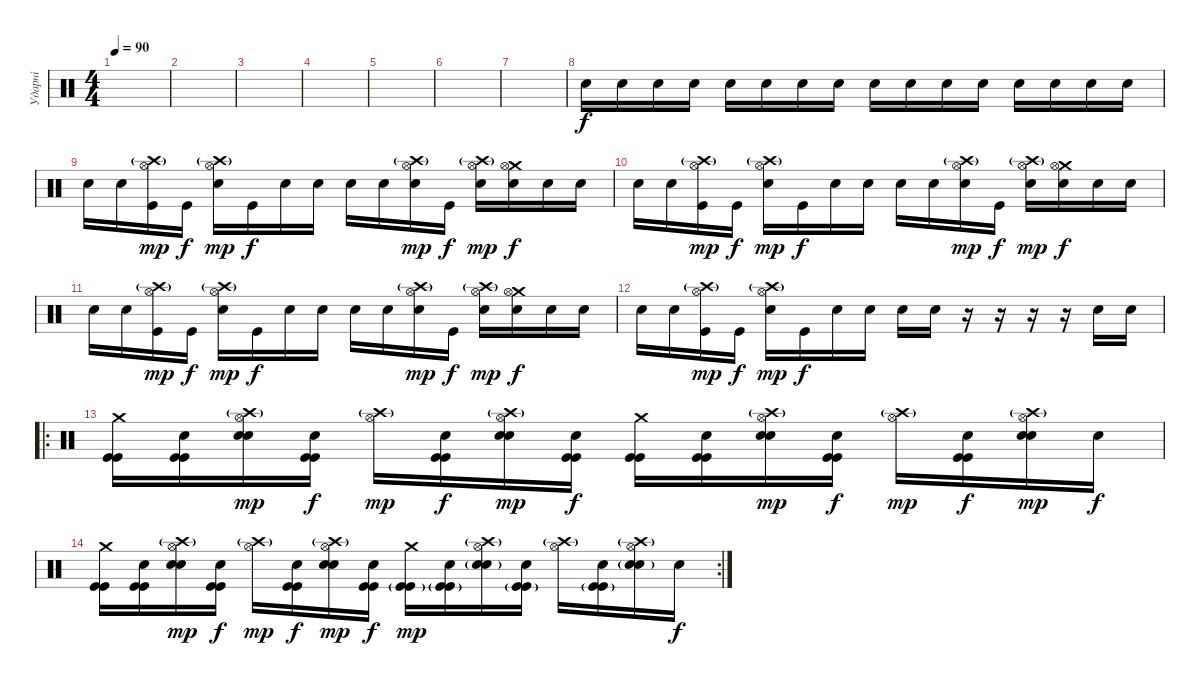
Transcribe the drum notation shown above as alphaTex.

\track ("Ударні" "Ударні") {instrument percussion}
\staff {score}
\articulation defaults
\ts (4 4)
\tempo 90
\clef neutral
\ks c
|
|
|
|
|
|
|
"Snare (hit)".16 "Snare (hit)".16 "Snare (hit)".16 "Snare (hit)".16 "Snare (hit)".16 "Snare (hit)".16 "Snare (hit)".16 "Snare (hit)".16 "Snare (hit)".16 "Snare (hit)".16 "Snare (hit)".16 "Snare (hit)".16 "Snare (hit)".16 "Snare (hit)".16 "Snare (hit)".16 "Snare (hit)".16 |
"Snare (hit)".16 "Snare (hit)".16 ("Crash high (hit)"{g} "Hi-Hat (open)" "Kick (hit)").16{dy mp} "Kick (hit)".16{dy f} ("Crash high (hit)"{g} "Hi-Hat (open)" "Electric Snare (hit)").16{dy mp} "Kick (hit)".16{dy f} "Snare (hit)".16 "Snare (hit)".16 "Snare (hit)".16 "Snare (hit)".16 ("Crash high (hit)"{g} "Hi-Hat (open)" "Electric Snare (hit)").16{dy mp} "Kick (hit)".16{dy f} ("Crash high (hit)"{g} "Hi-Hat (open)" "Electric Snare (hit)").16{dy mp} ("Crash medium (hit)" "Hi-Hat (open)" "Electric Snare (hit)").16{dy f} "Snare (hit)".16 "Snare (hit)".16 |
"Snare (hit)".16 "Snare (hit)".16 ("Crash high (hit)"{g} "Hi-Hat (open)" "Kick (hit)").16{dy mp} "Kick (hit)".16{dy f} ("Crash high (hit)"{g} "Hi-Hat (open)" "Electric Snare (hit)").16{dy mp} "Kick (hit)".16{dy f} "Snare (hit)".16 "Snare (hit)".16 "Snare (hit)".16 "Snare (hit)".16 ("Crash high (hit)"{g} "Hi-Hat (open)" "Electric Snare (hit)").16{dy mp} "Kick (hit)".16{dy f} ("Crash high (hit)"{g} "Hi-Hat (open)" "Electric Snare (hit)").16{dy mp} ("Crash medium (hit)" "Hi-Hat (open)" "Electric Snare (hit)").16{dy f} "Snare (hit)".16 "Snare (hit)".16 |
"Snare (hit)".16 "Snare (hit)".16 ("Crash high (hit)"{g} "Hi-Hat (open)" "Kick (hit)").16{dy mp} "Kick (hit)".16{dy f} ("Crash high (hit)"{g} "Hi-Hat (open)" "Electric Snare (hit)").16{dy mp} "Kick (hit)".16{dy f} "Snare (hit)".16 "Snare (hit)".16 "Snare (hit)".16 "Snare (hit)".16 ("Crash high (hit)"{g} "Hi-Hat (open)" "Electric Snare (hit)").16{dy mp} "Kick (hit)".16{dy f} ("Crash high (hit)"{g} "Hi-Hat (open)" "Electric Snare (hit)").16{dy mp} ("Crash medium (hit)" "Hi-Hat (open)" "Electric Snare (hit)").16{dy f} "Snare (hit)".16 "Snare (hit)".16 |
"Snare (hit)".16 "Snare (hit)".16 ("Crash high (hit)"{g} "Hi-Hat (open)" "Kick (hit)").16{dy mp} "Kick (hit)".16{dy f} ("Crash high (hit)"{g} "Hi-Hat (open)" "Electric Snare (hit)").16{dy mp} "Kick (hit)".16{dy f} "Snare (hit)".16 "Snare (hit)".16 "Snare (hit)".16 "Snare (hit)".16 r.16 r.16 r.16 r.16 "Snare (hit)".16 "Snare (hit)".16 |
\ro
("Crash medium (hit)" "Kick (hit)" "Kick (hit)").16 ("Snare (hit)" "Kick (hit)" "Kick (hit)").16 ("Hi-Hat (open)" "Crash high (hit)"{g} "Electric Snare (hit)" "Electric Snare (hit)").16{dy mp} ("Snare (hit)" "Kick (hit)" "Kick (hit)").16{dy f} ("Hi-Hat (open)" "Crash high (hit)"{g}).16{dy mp} ("Snare (hit)" "Kick (hit)" "Kick (hit)").16{dy f} ("Hi-Hat (open)" "Crash high (hit)"{g} "Electric Snare (hit)" "Electric Snare (hit)").16{dy mp} ("Snare (hit)" "Kick (hit)" "Kick (hit)").16{dy f} ("Crash medium (hit)" "Kick (hit)" "Kick (hit)").16 ("Snare (hit)" "Kick (hit)" "Kick (hit)").16 ("Hi-Hat (open)" "Crash high (hit)"{g} "Electric Snare (hit)" "Electric Snare (hit)").16{dy mp} ("Snare (hit)" "Kick (hit)" "Kick (hit)").16{dy f} ("Hi-Hat (open)" "Crash high (hit)"{g}).16{dy mp} ("Snare (hit)" "Kick (hit)" "Kick (hit)").16{dy f} ("Hi-Hat (open)" "Crash high (hit)"{g} "Electric Snare (hit)" "Electric Snare (hit)").16{dy mp} "Snare (hit)".16{dy f} |
\rc 2
("Crash medium (hit)" "Kick (hit)" "Kick (hit)").16 ("Snare (hit)" "Kick (hit)" "Kick (hit)").16 ("Hi-Hat (open)" "Crash high (hit)"{g} "Electric Snare (hit)" "Electric Snare (hit)").16{dy mp} ("Snare (hit)" "Kick (hit)" "Kick (hit)").16{dy f} ("Hi-Hat (open)" "Crash high (hit)"{g}).16{dy mp} ("Snare (hit)" "Kick (hit)" "Kick (hit)").16{dy f} ("Hi-Hat (open)" "Crash high (hit)"{g} "Electric Snare (hit)" "Electric Snare (hit)").16{dy mp} ("Snare (hit)" "Kick (hit)" "Kick (hit)").16{dy f} ("Crash medium (hit)" "Kick (hit)" "Kick (hit)"{g}).16{dy mp} ("Snare (hit)" "Kick (hit)" "Kick (hit)"{g}).16 ("Hi-Hat (open)" "Crash high (hit)"{g} "Snare (hit) 2" "Electric Snare (hit)"{g}).16 ("Snare (hit)" "Kick (hit)" "Kick (hit)"{g}).16 ("Hi-Hat (open)" "Crash high (hit)"{g}).16 ("Snare (hit)" "Kick (hit)" "Kick (hit)"{g}).16 ("Hi-Hat (open)" "Crash high (hit)"{g} "Snare (hit) 2" "Electric Snare (hit)"{g}).16 "Snare (hit)".16{dy f}
